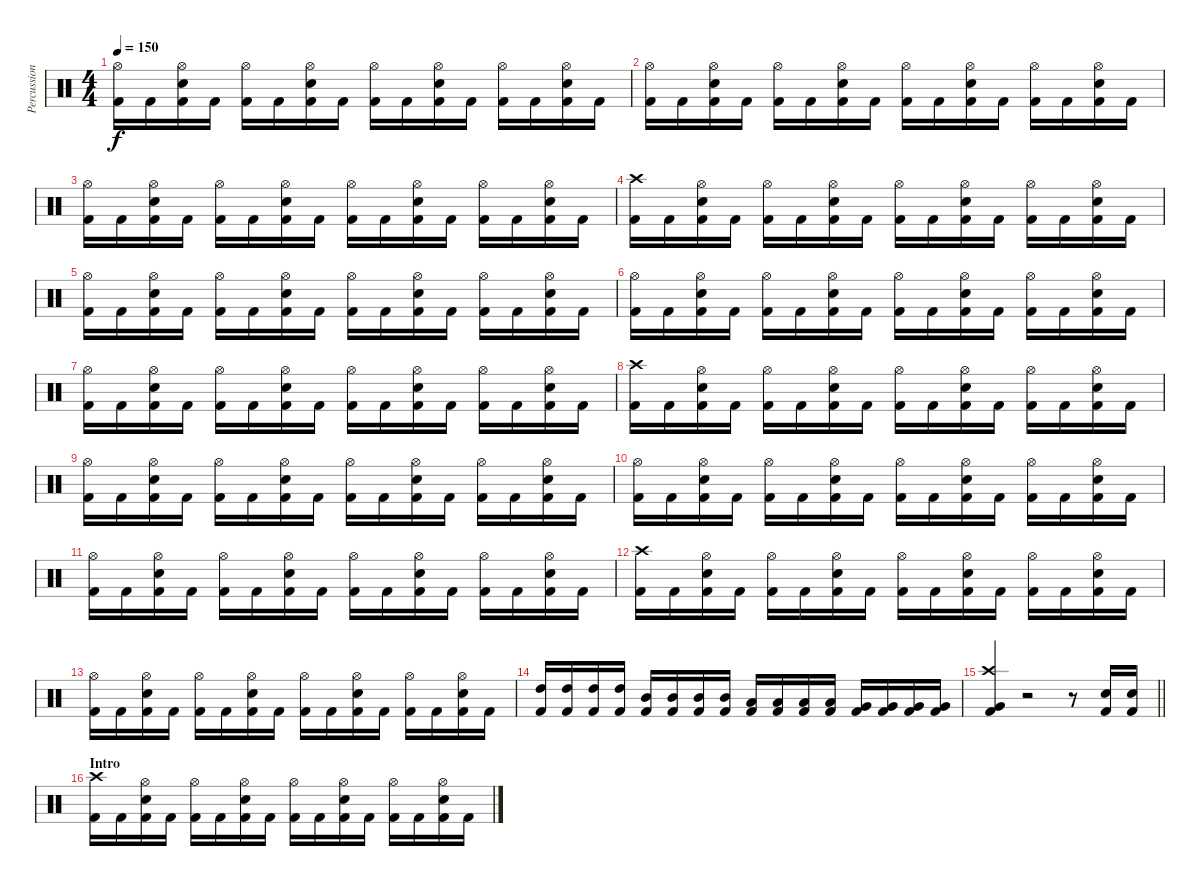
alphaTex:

\track ("Percussion" "Percussion") {instrument percussion}
\staff {score}
\articulation defaults
\ts (4 4)
\tempo 150
\clef neutral
\ks c
("Hi-Hat (open)" "Kick (hit) 2").16{dy f} "Kick (hit) 2".16 ("Hi-Hat (open)" "Snare (hit) 2" "Kick (hit) 2").16 "Kick (hit) 2".16 ("Hi-Hat (open)" "Kick (hit) 2").16 "Kick (hit) 2".16 ("Hi-Hat (open)" "Snare (hit) 2" "Kick (hit) 2").16 "Kick (hit) 2".16 ("Hi-Hat (open)" "Kick (hit) 2").16 "Kick (hit) 2".16 ("Hi-Hat (open)" "Snare (hit) 2" "Kick (hit) 2").16 "Kick (hit) 2".16 ("Hi-Hat (open)" "Kick (hit) 2").16 "Kick (hit) 2".16 ("Hi-Hat (open)" "Snare (hit) 2" "Kick (hit) 2").16 "Kick (hit) 2".16 |
("Hi-Hat (open)" "Kick (hit) 2").16 "Kick (hit) 2".16 ("Hi-Hat (open)" "Snare (hit) 2" "Kick (hit) 2").16 "Kick (hit) 2".16 ("Hi-Hat (open)" "Kick (hit) 2").16 "Kick (hit) 2".16 ("Hi-Hat (open)" "Snare (hit) 2" "Kick (hit) 2").16 "Kick (hit) 2".16 ("Hi-Hat (open)" "Kick (hit) 2").16 "Kick (hit) 2".16 ("Hi-Hat (open)" "Snare (hit) 2" "Kick (hit) 2").16 "Kick (hit) 2".16 ("Hi-Hat (open)" "Kick (hit) 2").16 "Kick (hit) 2".16 ("Hi-Hat (open)" "Snare (hit) 2" "Kick (hit) 2").16 "Kick (hit) 2".16 |
("Hi-Hat (open)" "Kick (hit) 2").16 "Kick (hit) 2".16 ("Hi-Hat (open)" "Snare (hit) 2" "Kick (hit) 2").16 "Kick (hit) 2".16 ("Hi-Hat (open)" "Kick (hit) 2").16 "Kick (hit) 2".16 ("Hi-Hat (open)" "Snare (hit) 2" "Kick (hit) 2").16 "Kick (hit) 2".16 ("Hi-Hat (open)" "Kick (hit) 2").16 "Kick (hit) 2".16 ("Hi-Hat (open)" "Snare (hit) 2" "Kick (hit) 2").16 "Kick (hit) 2".16 ("Hi-Hat (open)" "Kick (hit) 2").16 "Kick (hit) 2".16 ("Hi-Hat (open)" "Snare (hit) 2" "Kick (hit) 2").16 "Kick (hit) 2".16 |
("Crash high (hit)" "Kick (hit) 2").16 "Kick (hit) 2".16 ("Hi-Hat (open)" "Snare (hit) 2" "Kick (hit) 2").16 "Kick (hit) 2".16 ("Hi-Hat (open)" "Kick (hit) 2").16 "Kick (hit) 2".16 ("Hi-Hat (open)" "Snare (hit) 2" "Kick (hit) 2").16 "Kick (hit) 2".16 ("Hi-Hat (open)" "Kick (hit) 2").16 "Kick (hit) 2".16 ("Hi-Hat (open)" "Snare (hit) 2" "Kick (hit) 2").16 "Kick (hit) 2".16 ("Hi-Hat (open)" "Kick (hit) 2").16 "Kick (hit) 2".16 ("Hi-Hat (open)" "Snare (hit) 2" "Kick (hit) 2").16 "Kick (hit) 2".16 |
("Hi-Hat (open)" "Kick (hit) 2").16 "Kick (hit) 2".16 ("Hi-Hat (open)" "Snare (hit) 2" "Kick (hit) 2").16 "Kick (hit) 2".16 ("Hi-Hat (open)" "Kick (hit) 2").16 "Kick (hit) 2".16 ("Hi-Hat (open)" "Snare (hit) 2" "Kick (hit) 2").16 "Kick (hit) 2".16 ("Hi-Hat (open)" "Kick (hit) 2").16 "Kick (hit) 2".16 ("Hi-Hat (open)" "Snare (hit) 2" "Kick (hit) 2").16 "Kick (hit) 2".16 ("Hi-Hat (open)" "Kick (hit) 2").16 "Kick (hit) 2".16 ("Hi-Hat (open)" "Snare (hit) 2" "Kick (hit) 2").16 "Kick (hit) 2".16 |
("Hi-Hat (open)" "Kick (hit) 2").16 "Kick (hit) 2".16 ("Hi-Hat (open)" "Snare (hit) 2" "Kick (hit) 2").16 "Kick (hit) 2".16 ("Hi-Hat (open)" "Kick (hit) 2").16 "Kick (hit) 2".16 ("Hi-Hat (open)" "Snare (hit) 2" "Kick (hit) 2").16 "Kick (hit) 2".16 ("Hi-Hat (open)" "Kick (hit) 2").16 "Kick (hit) 2".16 ("Hi-Hat (open)" "Snare (hit) 2" "Kick (hit) 2").16 "Kick (hit) 2".16 ("Hi-Hat (open)" "Kick (hit) 2").16 "Kick (hit) 2".16 ("Hi-Hat (open)" "Snare (hit) 2" "Kick (hit) 2").16 "Kick (hit) 2".16 |
("Hi-Hat (open)" "Kick (hit) 2").16 "Kick (hit) 2".16 ("Hi-Hat (open)" "Snare (hit) 2" "Kick (hit) 2").16 "Kick (hit) 2".16 ("Hi-Hat (open)" "Kick (hit) 2").16 "Kick (hit) 2".16 ("Hi-Hat (open)" "Snare (hit) 2" "Kick (hit) 2").16 "Kick (hit) 2".16 ("Hi-Hat (open)" "Kick (hit) 2").16 "Kick (hit) 2".16 ("Hi-Hat (open)" "Snare (hit) 2" "Kick (hit) 2").16 "Kick (hit) 2".16 ("Hi-Hat (open)" "Kick (hit) 2").16 "Kick (hit) 2".16 ("Hi-Hat (open)" "Snare (hit) 2" "Kick (hit) 2").16 "Kick (hit) 2".16 |
("Crash high (hit)" "Kick (hit) 2").16 "Kick (hit) 2".16 ("Hi-Hat (open)" "Snare (hit) 2" "Kick (hit) 2").16 "Kick (hit) 2".16 ("Hi-Hat (open)" "Kick (hit) 2").16 "Kick (hit) 2".16 ("Hi-Hat (open)" "Snare (hit) 2" "Kick (hit) 2").16 "Kick (hit) 2".16 ("Hi-Hat (open)" "Kick (hit) 2").16 "Kick (hit) 2".16 ("Hi-Hat (open)" "Snare (hit) 2" "Kick (hit) 2").16 "Kick (hit) 2".16 ("Hi-Hat (open)" "Kick (hit) 2").16 "Kick (hit) 2".16 ("Hi-Hat (open)" "Snare (hit) 2" "Kick (hit) 2").16 "Kick (hit) 2".16 |
("Hi-Hat (open)" "Kick (hit) 2").16 "Kick (hit) 2".16 ("Hi-Hat (open)" "Snare (hit) 2" "Kick (hit) 2").16 "Kick (hit) 2".16 ("Hi-Hat (open)" "Kick (hit) 2").16 "Kick (hit) 2".16 ("Hi-Hat (open)" "Snare (hit) 2" "Kick (hit) 2").16 "Kick (hit) 2".16 ("Hi-Hat (open)" "Kick (hit) 2").16 "Kick (hit) 2".16 ("Hi-Hat (open)" "Snare (hit) 2" "Kick (hit) 2").16 "Kick (hit) 2".16 ("Hi-Hat (open)" "Kick (hit) 2").16 "Kick (hit) 2".16 ("Hi-Hat (open)" "Snare (hit) 2" "Kick (hit) 2").16 "Kick (hit) 2".16 |
("Hi-Hat (open)" "Kick (hit) 2").16 "Kick (hit) 2".16 ("Hi-Hat (open)" "Snare (hit) 2" "Kick (hit) 2").16 "Kick (hit) 2".16 ("Hi-Hat (open)" "Kick (hit) 2").16 "Kick (hit) 2".16 ("Hi-Hat (open)" "Snare (hit) 2" "Kick (hit) 2").16 "Kick (hit) 2".16 ("Hi-Hat (open)" "Kick (hit) 2").16 "Kick (hit) 2".16 ("Hi-Hat (open)" "Snare (hit) 2" "Kick (hit) 2").16 "Kick (hit) 2".16 ("Hi-Hat (open)" "Kick (hit) 2").16 "Kick (hit) 2".16 ("Hi-Hat (open)" "Snare (hit) 2" "Kick (hit) 2").16 "Kick (hit) 2".16 |
("Hi-Hat (open)" "Kick (hit) 2").16 "Kick (hit) 2".16 ("Hi-Hat (open)" "Snare (hit) 2" "Kick (hit) 2").16 "Kick (hit) 2".16 ("Hi-Hat (open)" "Kick (hit) 2").16 "Kick (hit) 2".16 ("Hi-Hat (open)" "Snare (hit) 2" "Kick (hit) 2").16 "Kick (hit) 2".16 ("Hi-Hat (open)" "Kick (hit) 2").16 "Kick (hit) 2".16 ("Hi-Hat (open)" "Snare (hit) 2" "Kick (hit) 2").16 "Kick (hit) 2".16 ("Hi-Hat (open)" "Kick (hit) 2").16 "Kick (hit) 2".16 ("Hi-Hat (open)" "Snare (hit) 2" "Kick (hit) 2").16 "Kick (hit) 2".16 |
("Crash high (hit)" "Kick (hit) 2").16 "Kick (hit) 2".16 ("Hi-Hat (open)" "Snare (hit) 2" "Kick (hit) 2").16 "Kick (hit) 2".16 ("Hi-Hat (open)" "Kick (hit) 2").16 "Kick (hit) 2".16 ("Hi-Hat (open)" "Snare (hit) 2" "Kick (hit) 2").16 "Kick (hit) 2".16 ("Hi-Hat (open)" "Kick (hit) 2").16 "Kick (hit) 2".16 ("Hi-Hat (open)" "Snare (hit) 2" "Kick (hit) 2").16 "Kick (hit) 2".16 ("Hi-Hat (open)" "Kick (hit) 2").16 "Kick (hit) 2".16 ("Hi-Hat (open)" "Snare (hit) 2" "Kick (hit) 2").16 "Kick (hit) 2".16 |
("Hi-Hat (open)" "Kick (hit) 2").16 "Kick (hit) 2".16 ("Hi-Hat (open)" "Snare (hit) 2" "Kick (hit) 2").16 "Kick (hit) 2".16 ("Hi-Hat (open)" "Kick (hit) 2").16 "Kick (hit) 2".16 ("Hi-Hat (open)" "Snare (hit) 2" "Kick (hit) 2").16 "Kick (hit) 2".16 ("Hi-Hat (open)" "Kick (hit) 2").16 "Kick (hit) 2".16 ("Hi-Hat (open)" "Snare (hit) 2" "Kick (hit) 2").16 "Kick (hit) 2".16 ("Hi-Hat (open)" "Kick (hit) 2").16 "Kick (hit) 2".16 ("Hi-Hat (open)" "Snare (hit) 2" "Kick (hit) 2").16 "Kick (hit) 2".16 |
("High Tom (hit)" "Kick (hit) 2").16 ("High Tom (hit)" "Kick (hit) 2").16 ("High Tom (hit)" "Kick (hit) 2").16 ("High Tom (hit)" "Kick (hit) 2").16 ("Mid Tom (hit)" "Kick (hit) 2").16 ("Mid Tom (hit)" "Kick (hit) 2").16 ("Mid Tom (hit)" "Kick (hit) 2").16 ("Mid Tom (hit)" "Kick (hit) 2").16 ("Low Tom (hit)" "Kick (hit) 2").16 ("Low Tom (hit)" "Kick (hit) 2").16 ("Low Tom (hit)" "Kick (hit) 2").16 ("Low Tom (hit)" "Kick (hit) 2").16 ("Very Low Tom (hit)" "Kick (hit) 2").16 ("Very Low Tom (hit)" "Kick (hit) 2").16 ("Very Low Tom (hit)" "Kick (hit) 2").16 ("Very Low Tom (hit)" "Kick (hit) 2").16 |
\barLineRight lightlight
("Crash high (hit)" "Very Low Tom (hit)" "Kick (hit) 2").4 r.2 r.8 ("Snare (hit) 2" "Kick (hit) 2").16 ("Snare (hit) 2" "Kick (hit) 2").16 |
\section ("" "Intro")
("Crash high (hit)" "Kick (hit) 2").16 "Kick (hit) 2".16 ("Hi-Hat (open)" "Snare (hit) 2" "Kick (hit) 2").16 "Kick (hit) 2".16 ("Hi-Hat (open)" "Kick (hit) 2").16 "Kick (hit) 2".16 ("Hi-Hat (open)" "Snare (hit) 2" "Kick (hit) 2").16 "Kick (hit) 2".16 ("Hi-Hat (open)" "Kick (hit) 2").16 "Kick (hit) 2".16 ("Hi-Hat (open)" "Snare (hit) 2" "Kick (hit) 2").16 "Kick (hit) 2".16 ("Hi-Hat (open)" "Kick (hit) 2").16 "Kick (hit) 2".16 ("Hi-Hat (open)" "Snare (hit) 2" "Kick (hit) 2").16 "Kick (hit) 2".16
